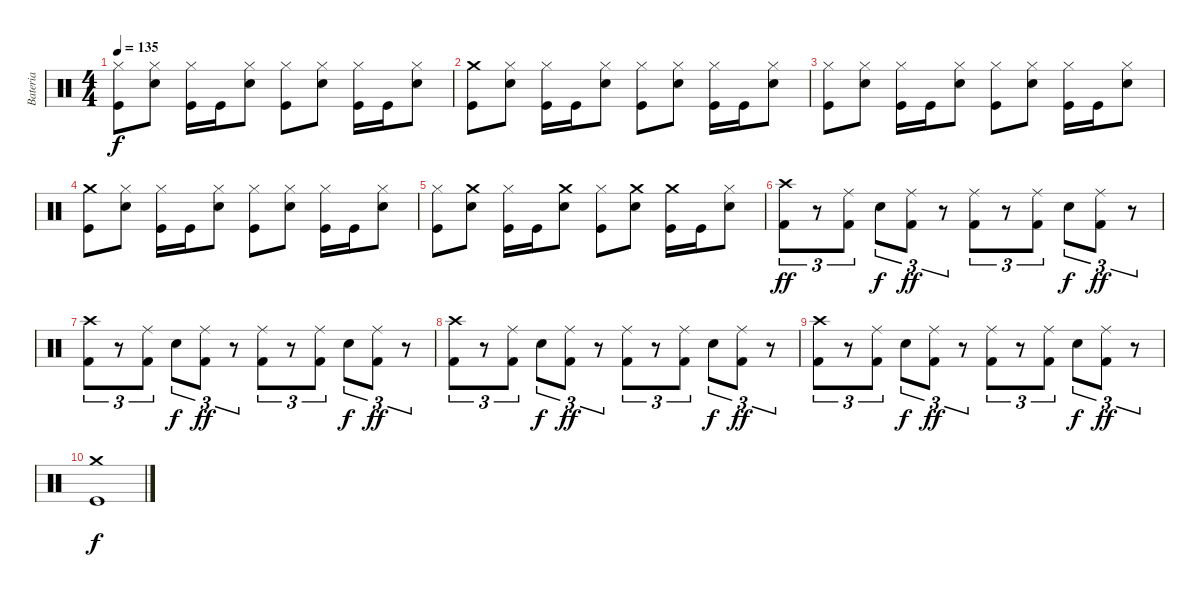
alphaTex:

\track ("Bateria" "Bateria") {instrument percussion}
\staff {score}
\articulation defaults
\ts (4 4)
\tempo 135
\clef neutral
\ks c
("Kick (hit)" "Hi-Hat (closed)").8{dy f} ("Snare (hit) 2" "Hi-Hat (closed)").8 ("Kick (hit)" "Hi-Hat (closed)").16 "Kick (hit)".16 ("Snare (hit) 2" "Hi-Hat (closed)").8 ("Kick (hit)" "Hi-Hat (closed)").8 ("Snare (hit) 2" "Hi-Hat (closed)").8 ("Kick (hit)" "Hi-Hat (closed)").16 "Kick (hit)".16 ("Snare (hit) 2" "Hi-Hat (closed)").8 |
("Kick (hit)" "Crash medium (hit)").8 ("Snare (hit) 2" "Hi-Hat (closed)").8 ("Kick (hit)" "Hi-Hat (closed)").16 "Kick (hit)".16 ("Snare (hit) 2" "Hi-Hat (closed)").8 ("Kick (hit)" "Hi-Hat (closed)").8 ("Snare (hit) 2" "Hi-Hat (closed)").8 ("Kick (hit)" "Hi-Hat (closed)").16 "Kick (hit)".16 ("Snare (hit) 2" "Hi-Hat (closed)").8 |
("Kick (hit)" "Hi-Hat (closed)").8 ("Snare (hit) 2" "Hi-Hat (closed)").8 ("Kick (hit)" "Hi-Hat (closed)").16 "Kick (hit)".16 ("Snare (hit) 2" "Hi-Hat (closed)").8 ("Kick (hit)" "Hi-Hat (closed)").8 ("Snare (hit) 2" "Hi-Hat (closed)").8 ("Kick (hit)" "Hi-Hat (closed)").16 "Kick (hit)".16 ("Snare (hit) 2" "Hi-Hat (closed)").8 |
("Kick (hit)" "Crash medium (hit)").8 ("Snare (hit) 2" "Hi-Hat (closed)").8 ("Kick (hit)" "Hi-Hat (closed)").16 "Kick (hit)".16 ("Snare (hit) 2" "Hi-Hat (closed)").8 ("Kick (hit)" "Hi-Hat (closed)").8 ("Snare (hit) 2" "Hi-Hat (closed)").8 ("Kick (hit)" "Hi-Hat (closed)").16 "Kick (hit)".16 ("Snare (hit) 2" "Hi-Hat (closed)").8 |
("Kick (hit)" "Hi-Hat (closed)").8 ("Snare (hit) 2" "Crash medium (hit)").8 ("Kick (hit)" "Hi-Hat (closed)").16 "Kick (hit)".16 ("Snare (hit) 2" "Crash medium (hit)").8 ("Kick (hit)" "Hi-Hat (closed)").8 ("Snare (hit) 2" "Crash medium (hit)").8 ("Kick (hit)" "Crash medium (hit)").16 "Kick (hit)".16 ("Snare (hit) 2" "Hi-Hat (closed)").8 |
("Kick (hit) 2" "Crash high (hit)").8{tu (3 2) dy ff} r.8{tu (3 2)} ("Kick (hit) 2" "Ride (middle)").8{tu (3 2)} "Snare (hit) 2".8{tu (3 2) dy f} ("Kick (hit) 2" "Ride (middle)").8{tu (3 2) dy ff} r.8{tu (3 2)} ("Kick (hit) 2" "Ride (middle)").8{tu (3 2)} r.8{tu (3 2)} ("Kick (hit) 2" "Ride (middle)").8{tu (3 2)} "Snare (hit) 2".8{tu (3 2) dy f} ("Kick (hit) 2" "Ride (middle)").8{tu (3 2) dy ff} r.8{tu (3 2)} |
("Kick (hit) 2" "Crash high (hit)").8{tu (3 2)} r.8{tu (3 2)} ("Kick (hit) 2" "Ride (middle)").8{tu (3 2)} "Snare (hit) 2".8{tu (3 2) dy f} ("Kick (hit) 2" "Ride (middle)").8{tu (3 2) dy ff} r.8{tu (3 2)} ("Kick (hit) 2" "Ride (middle)").8{tu (3 2)} r.8{tu (3 2)} ("Kick (hit) 2" "Ride (middle)").8{tu (3 2)} "Snare (hit) 2".8{tu (3 2) dy f} ("Kick (hit) 2" "Ride (middle)").8{tu (3 2) dy ff} r.8{tu (3 2)} |
("Kick (hit) 2" "Crash high (hit)").8{tu (3 2)} r.8{tu (3 2)} ("Kick (hit) 2" "Ride (middle)").8{tu (3 2)} "Snare (hit) 2".8{tu (3 2) dy f} ("Kick (hit) 2" "Ride (middle)").8{tu (3 2) dy ff} r.8{tu (3 2)} ("Kick (hit) 2" "Ride (middle)").8{tu (3 2)} r.8{tu (3 2)} ("Kick (hit) 2" "Ride (middle)").8{tu (3 2)} "Snare (hit) 2".8{tu (3 2) dy f} ("Kick (hit) 2" "Ride (middle)").8{tu (3 2) dy ff} r.8{tu (3 2)} |
("Kick (hit) 2" "Crash high (hit)").8{tu (3 2)} r.8{tu (3 2)} ("Kick (hit) 2" "Ride (middle)").8{tu (3 2)} "Snare (hit) 2".8{tu (3 2) dy f} ("Kick (hit) 2" "Ride (middle)").8{tu (3 2) dy ff} r.8{tu (3 2)} ("Kick (hit) 2" "Ride (middle)").8{tu (3 2)} r.8{tu (3 2)} ("Kick (hit) 2" "Ride (middle)").8{tu (3 2)} "Snare (hit) 2".8{tu (3 2) dy f} ("Kick (hit) 2" "Ride (middle)").8{tu (3 2) dy ff} r.8{tu (3 2)} |
("Kick (hit)" "Crash medium (hit)").1{dy f}
